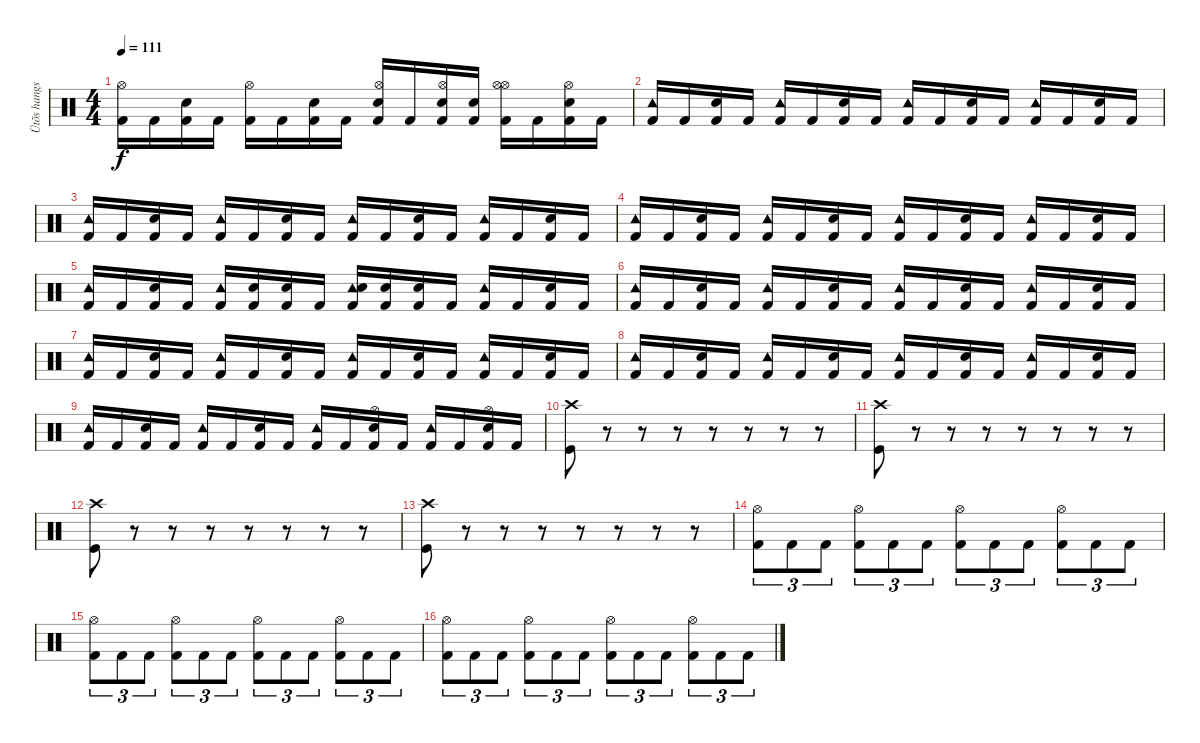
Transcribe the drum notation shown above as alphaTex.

\track ("Ütõs hangszer" "Ütõs hangs") {instrument percussion}
\staff {score}
\articulation defaults
\ts (4 4)
\tempo 111
\clef neutral
\ks c
("Kick (hit) 2" "Hi-Hat (open)").16{dy f} "Kick (hit) 2".16 ("Kick (hit) 2" "Electric Snare (hit)").16 "Kick (hit) 2".16 ("Kick (hit) 2" "Hi-Hat (open)").16 "Kick (hit) 2".16 ("Kick (hit) 2" "Electric Snare (hit)").16 "Kick (hit) 2".16 ("Kick (hit) 2" "Electric Snare (hit)" "Hi-Hat (open)").16 "Kick (hit) 2".16 ("Kick (hit) 2" "Hi-Hat (open)" "Electric Snare (hit)").16 ("Kick (hit) 2" "Electric Snare (hit)").16 ("Kick (hit) 2" "Hi-Hat (open)" "Hi-Hat (open)").16 "Kick (hit) 2".16 ("Kick (hit) 2" "Hi-Hat (open)" "Electric Snare (hit)").16 "Kick (hit) 2".16 |
("Kick (hit) 2" "Tambourine (hit)").16 "Kick (hit) 2".16 ("Kick (hit) 2" "Electric Snare (hit)").16 "Kick (hit) 2".16 ("Kick (hit) 2" "Tambourine (hit)").16 "Kick (hit) 2".16 ("Kick (hit) 2" "Electric Snare (hit)").16 "Kick (hit) 2".16 ("Kick (hit) 2" "Tambourine (hit)").16 "Kick (hit) 2".16 ("Kick (hit) 2" "Electric Snare (hit)").16 "Kick (hit) 2".16 ("Kick (hit) 2" "Tambourine (hit)").16 "Kick (hit) 2".16 ("Kick (hit) 2" "Electric Snare (hit)").16 "Kick (hit) 2".16 |
("Kick (hit) 2" "Tambourine (hit)").16 "Kick (hit) 2".16 ("Kick (hit) 2" "Electric Snare (hit)").16 "Kick (hit) 2".16 ("Kick (hit) 2" "Tambourine (hit)").16 "Kick (hit) 2".16 ("Kick (hit) 2" "Electric Snare (hit)").16 "Kick (hit) 2".16 ("Kick (hit) 2" "Tambourine (hit)").16 "Kick (hit) 2".16 ("Kick (hit) 2" "Electric Snare (hit)").16 "Kick (hit) 2".16 ("Kick (hit) 2" "Tambourine (hit)").16 "Kick (hit) 2".16 ("Kick (hit) 2" "Electric Snare (hit)").16 "Kick (hit) 2".16 |
("Kick (hit) 2" "Tambourine (hit)").16 "Kick (hit) 2".16 ("Kick (hit) 2" "Electric Snare (hit)").16 "Kick (hit) 2".16 ("Kick (hit) 2" "Tambourine (hit)").16 "Kick (hit) 2".16 ("Kick (hit) 2" "Electric Snare (hit)").16 "Kick (hit) 2".16 ("Kick (hit) 2" "Tambourine (hit)").16 "Kick (hit) 2".16 ("Kick (hit) 2" "Electric Snare (hit)").16 "Kick (hit) 2".16 ("Kick (hit) 2" "Tambourine (hit)").16 "Kick (hit) 2".16 ("Kick (hit) 2" "Electric Snare (hit)").16 "Kick (hit) 2".16 |
("Kick (hit) 2" "Tambourine (hit)").16 "Kick (hit) 2".16 ("Kick (hit) 2" "Electric Snare (hit)").16 "Kick (hit) 2".16 ("Kick (hit) 2" "Tambourine (hit)").16 ("Kick (hit) 2" "Electric Snare (hit)").16 ("Kick (hit) 2" "Electric Snare (hit)").16 "Kick (hit) 2".16 ("Kick (hit) 2" "Tambourine (hit)" "Electric Snare (hit)").16 ("Kick (hit) 2" "Electric Snare (hit)").16 ("Kick (hit) 2" "Electric Snare (hit)").16 "Kick (hit) 2".16 ("Kick (hit) 2" "Tambourine (hit)").16 "Kick (hit) 2".16 ("Kick (hit) 2" "Electric Snare (hit)").16 "Kick (hit) 2".16 |
("Kick (hit) 2" "Tambourine (hit)").16 "Kick (hit) 2".16 ("Kick (hit) 2" "Electric Snare (hit)").16 "Kick (hit) 2".16 ("Kick (hit) 2" "Tambourine (hit)").16 "Kick (hit) 2".16 ("Kick (hit) 2" "Electric Snare (hit)").16 "Kick (hit) 2".16 ("Kick (hit) 2" "Tambourine (hit)").16 "Kick (hit) 2".16 ("Kick (hit) 2" "Electric Snare (hit)").16 "Kick (hit) 2".16 ("Kick (hit) 2" "Tambourine (hit)").16 "Kick (hit) 2".16 ("Kick (hit) 2" "Electric Snare (hit)").16 "Kick (hit) 2".16 |
("Kick (hit) 2" "Tambourine (hit)").16 "Kick (hit) 2".16 ("Kick (hit) 2" "Electric Snare (hit)").16 "Kick (hit) 2".16 ("Kick (hit) 2" "Tambourine (hit)").16 "Kick (hit) 2".16 ("Kick (hit) 2" "Electric Snare (hit)").16 "Kick (hit) 2".16 ("Kick (hit) 2" "Tambourine (hit)").16 "Kick (hit) 2".16 ("Kick (hit) 2" "Electric Snare (hit)").16 "Kick (hit) 2".16 ("Kick (hit) 2" "Tambourine (hit)").16 "Kick (hit) 2".16 ("Kick (hit) 2" "Electric Snare (hit)").16 "Kick (hit) 2".16 |
("Kick (hit) 2" "Tambourine (hit)").16 "Kick (hit) 2".16 ("Kick (hit) 2" "Electric Snare (hit)").16 "Kick (hit) 2".16 ("Kick (hit) 2" "Tambourine (hit)").16 "Kick (hit) 2".16 ("Kick (hit) 2" "Electric Snare (hit)").16 "Kick (hit) 2".16 ("Kick (hit) 2" "Tambourine (hit)").16 "Kick (hit) 2".16 ("Kick (hit) 2" "Electric Snare (hit)").16 "Kick (hit) 2".16 ("Kick (hit) 2" "Tambourine (hit)").16 "Kick (hit) 2".16 ("Kick (hit) 2" "Electric Snare (hit)").16 "Kick (hit) 2".16 |
("Kick (hit) 2" "Tambourine (hit)").16 "Kick (hit) 2".16 ("Kick (hit) 2" "Electric Snare (hit)").16 "Kick (hit) 2".16 ("Kick (hit) 2" "Tambourine (hit)").16 "Kick (hit) 2".16 ("Kick (hit) 2" "Electric Snare (hit)").16 "Kick (hit) 2".16 ("Kick (hit) 2" "Tambourine (hit)").16 "Kick (hit) 2".16 ("Kick (hit) 2" "Hi-Hat (open)" "Electric Snare (hit)").16 "Kick (hit) 2".16 ("Kick (hit) 2" "Tambourine (hit)").16 "Kick (hit) 2".16 ("Kick (hit) 2" "Hi-Hat (open)" "Electric Snare (hit)").16 "Kick (hit) 2".16 |
("Crash high (hit)" "Kick (hit)").8 r.8 r.8 r.8 r.8 r.8 r.8 r.8 |
("Crash high (hit)" "Kick (hit)").8 r.8 r.8 r.8 r.8 r.8 r.8 r.8 |
("Crash high (hit)" "Kick (hit)").8 r.8 r.8 r.8 r.8 r.8 r.8 r.8 |
("Crash high (hit)" "Kick (hit)").8 r.8 r.8 r.8 r.8 r.8 r.8 r.8 |
("Kick (hit) 2" "Hi-Hat (open)").8{tu (3 2)} "Kick (hit) 2".8{tu (3 2)} "Kick (hit) 2".8{tu (3 2)} ("Kick (hit) 2" "Hi-Hat (open)").8{tu (3 2)} "Kick (hit) 2".8{tu (3 2)} "Kick (hit) 2".8{tu (3 2)} ("Kick (hit) 2" "Hi-Hat (open)").8{tu (3 2)} "Kick (hit) 2".8{tu (3 2)} "Kick (hit) 2".8{tu (3 2)} ("Kick (hit) 2" "Hi-Hat (open)").8{tu (3 2)} "Kick (hit) 2".8{tu (3 2)} "Kick (hit) 2".8{tu (3 2)} |
("Kick (hit) 2" "Hi-Hat (open)").8{tu (3 2)} "Kick (hit) 2".8{tu (3 2)} "Kick (hit) 2".8{tu (3 2)} ("Kick (hit) 2" "Hi-Hat (open)").8{tu (3 2)} "Kick (hit) 2".8{tu (3 2)} "Kick (hit) 2".8{tu (3 2)} ("Kick (hit) 2" "Hi-Hat (open)").8{tu (3 2)} "Kick (hit) 2".8{tu (3 2)} "Kick (hit) 2".8{tu (3 2)} ("Kick (hit) 2" "Hi-Hat (open)").8{tu (3 2)} "Kick (hit) 2".8{tu (3 2)} "Kick (hit) 2".8{tu (3 2)} |
("Kick (hit) 2" "Hi-Hat (open)").8{tu (3 2)} "Kick (hit) 2".8{tu (3 2)} "Kick (hit) 2".8{tu (3 2)} ("Kick (hit) 2" "Hi-Hat (open)").8{tu (3 2)} "Kick (hit) 2".8{tu (3 2)} "Kick (hit) 2".8{tu (3 2)} ("Kick (hit) 2" "Hi-Hat (open)").8{tu (3 2)} "Kick (hit) 2".8{tu (3 2)} "Kick (hit) 2".8{tu (3 2)} ("Kick (hit) 2" "Hi-Hat (open)").8{tu (3 2)} "Kick (hit) 2".8{tu (3 2)} "Kick (hit) 2".8{tu (3 2)}
